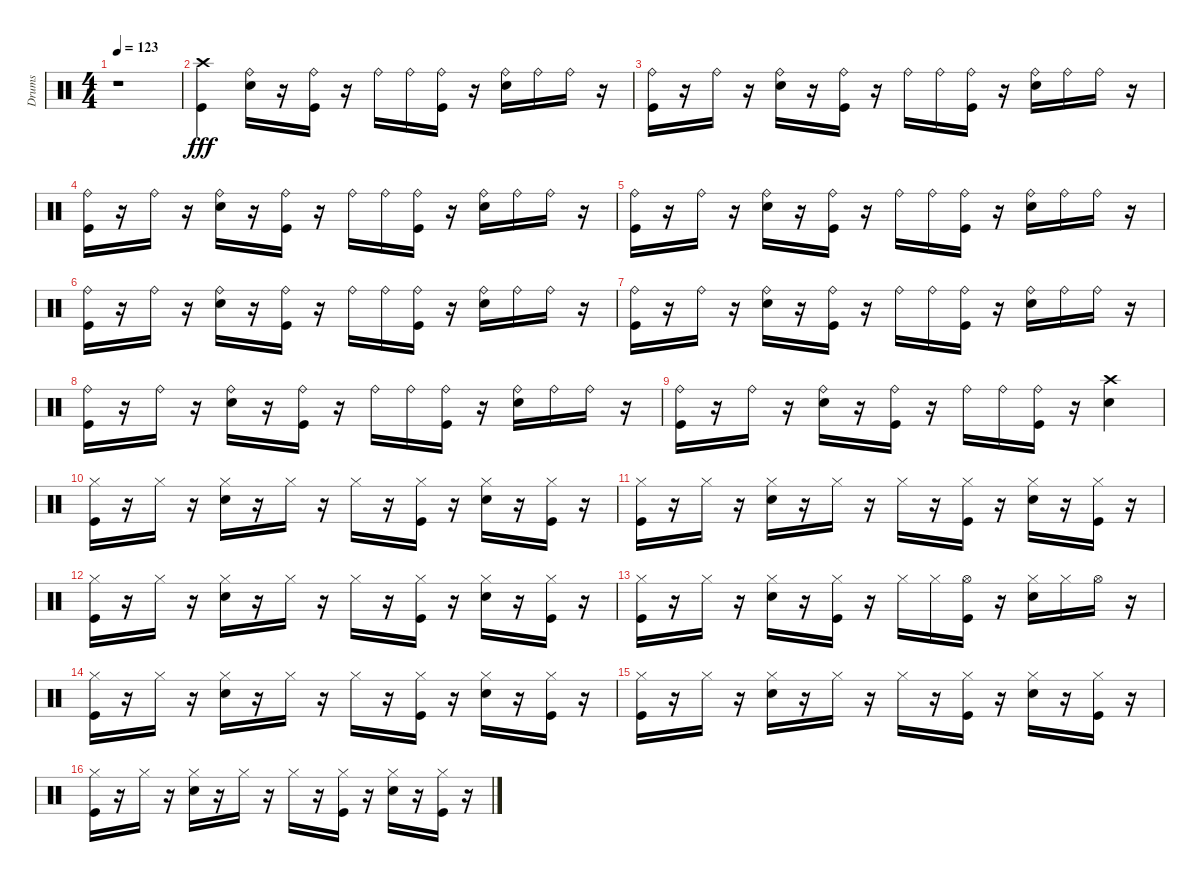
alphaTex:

\track ("Drums" "Drums") {instrument percussion}
\staff {score}
\articulation defaults
\ts (4 4)
\tempo 123
\clef neutral
\ks c
r.1{dy fff} |
("Crash high (hit)" "Kick (hit)").4 ("Snare (hit) 2" "Ride (bell)").16 r.16 ("Kick (hit)" "Ride (bell)").16 r.16 "Ride (bell)".16 "Ride (bell)".16 ("Kick (hit)" "Ride (bell)").16 r.16 ("Snare (hit) 2" "Ride (bell)").16 "Ride (bell)".16 "Ride (bell)".16 r.16 |
("Kick (hit)" "Ride (bell)").16 r.16 "Ride (bell)".16 r.16 ("Snare (hit) 2" "Ride (bell)").16 r.16 ("Kick (hit)" "Ride (bell)").16 r.16 "Ride (bell)".16 "Ride (bell)".16 ("Kick (hit)" "Ride (bell)").16 r.16 ("Snare (hit) 2" "Ride (bell)").16 "Ride (bell)".16 "Ride (bell)".16 r.16 |
("Kick (hit)" "Ride (bell)").16 r.16 "Ride (bell)".16 r.16 ("Snare (hit) 2" "Ride (bell)").16 r.16 ("Kick (hit)" "Ride (bell)").16 r.16 "Ride (bell)".16 "Ride (bell)".16 ("Kick (hit)" "Ride (bell)").16 r.16 ("Snare (hit) 2" "Ride (bell)").16 "Ride (bell)".16 "Ride (bell)".16 r.16 |
("Kick (hit)" "Ride (bell)").16 r.16 "Ride (bell)".16 r.16 ("Snare (hit) 2" "Ride (bell)").16 r.16 ("Kick (hit)" "Ride (bell)").16 r.16 "Ride (bell)".16 "Ride (bell)".16 ("Kick (hit)" "Ride (bell)").16 r.16 ("Snare (hit) 2" "Ride (bell)").16 "Ride (bell)".16 "Ride (bell)".16 r.16 |
("Kick (hit)" "Ride (bell)").16 r.16 "Ride (bell)".16 r.16 ("Snare (hit) 2" "Ride (bell)").16 r.16 ("Kick (hit)" "Ride (bell)").16 r.16 "Ride (bell)".16 "Ride (bell)".16 ("Kick (hit)" "Ride (bell)").16 r.16 ("Snare (hit) 2" "Ride (bell)").16 "Ride (bell)".16 "Ride (bell)".16 r.16 |
("Kick (hit)" "Ride (bell)").16 r.16 "Ride (bell)".16 r.16 ("Snare (hit) 2" "Ride (bell)").16 r.16 ("Kick (hit)" "Ride (bell)").16 r.16 "Ride (bell)".16 "Ride (bell)".16 ("Kick (hit)" "Ride (bell)").16 r.16 ("Snare (hit) 2" "Ride (bell)").16 "Ride (bell)".16 "Ride (bell)".16 r.16 |
("Kick (hit)" "Ride (bell)").16 r.16 "Ride (bell)".16 r.16 ("Snare (hit) 2" "Ride (bell)").16 r.16 ("Kick (hit)" "Ride (bell)").16 r.16 "Ride (bell)".16 "Ride (bell)".16 ("Kick (hit)" "Ride (bell)").16 r.16 ("Snare (hit) 2" "Ride (bell)").16 "Ride (bell)".16 "Ride (bell)".16 r.16 |
("Kick (hit)" "Ride (bell)").16 r.16 "Ride (bell)".16 r.16 ("Snare (hit) 2" "Ride (bell)").16 r.16 ("Kick (hit)" "Ride (bell)").16 r.16 "Ride (bell)".16 "Ride (bell)".16 ("Kick (hit)" "Ride (bell)").16 r.16 ("Snare (hit) 2" "Crash high (hit)").4 |
("Kick (hit)" "Hi-Hat (closed)").16 r.16 "Hi-Hat (closed)".16 r.16 ("Snare (hit) 2" "Hi-Hat (closed)").16 r.16 "Hi-Hat (closed)".16 r.16 "Hi-Hat (closed)".16 r.16 ("Kick (hit)" "Hi-Hat (closed)").16 r.16 ("Snare (hit) 2" "Hi-Hat (closed)").16 r.16 ("Kick (hit)" "Hi-Hat (closed)").16 r.16 |
("Kick (hit)" "Hi-Hat (closed)").16 r.16 "Hi-Hat (closed)".16 r.16 ("Snare (hit) 2" "Hi-Hat (closed)").16 r.16 "Hi-Hat (closed)".16 r.16 "Hi-Hat (closed)".16 r.16 ("Kick (hit)" "Hi-Hat (closed)").16 r.16 ("Snare (hit) 2" "Hi-Hat (closed)").16 r.16 ("Kick (hit)" "Hi-Hat (closed)").16 r.16 |
("Kick (hit)" "Hi-Hat (closed)").16 r.16 "Hi-Hat (closed)".16 r.16 ("Snare (hit) 2" "Hi-Hat (closed)").16 r.16 "Hi-Hat (closed)".16 r.16 "Hi-Hat (closed)".16 r.16 ("Kick (hit)" "Hi-Hat (closed)").16 r.16 ("Snare (hit) 2" "Hi-Hat (closed)").16 r.16 ("Kick (hit)" "Hi-Hat (closed)").16 r.16 |
("Kick (hit)" "Hi-Hat (closed)").16 r.16 "Hi-Hat (closed)".16 r.16 ("Snare (hit) 2" "Hi-Hat (closed)").16 r.16 ("Kick (hit)" "Hi-Hat (closed)").16 r.16 "Hi-Hat (closed)".16 "Hi-Hat (closed)".16 ("Kick (hit)" "Hi-Hat (open)").16 r.16 ("Snare (hit) 2" "Hi-Hat (closed)").16 "Hi-Hat (closed)".16 "Hi-Hat (open)".16 r.16 |
("Kick (hit)" "Hi-Hat (closed)").16 r.16 "Hi-Hat (closed)".16 r.16 ("Snare (hit) 2" "Hi-Hat (closed)").16 r.16 "Hi-Hat (closed)".16 r.16 "Hi-Hat (closed)".16 r.16 ("Kick (hit)" "Hi-Hat (closed)").16 r.16 ("Snare (hit) 2" "Hi-Hat (closed)").16 r.16 ("Kick (hit)" "Hi-Hat (closed)").16 r.16 |
("Kick (hit)" "Hi-Hat (closed)").16 r.16 "Hi-Hat (closed)".16 r.16 ("Snare (hit) 2" "Hi-Hat (closed)").16 r.16 "Hi-Hat (closed)".16 r.16 "Hi-Hat (closed)".16 r.16 ("Kick (hit)" "Hi-Hat (closed)").16 r.16 ("Snare (hit) 2" "Hi-Hat (closed)").16 r.16 ("Kick (hit)" "Hi-Hat (closed)").16 r.16 |
("Kick (hit)" "Hi-Hat (closed)").16 r.16 "Hi-Hat (closed)".16 r.16 ("Snare (hit) 2" "Hi-Hat (closed)").16 r.16 "Hi-Hat (closed)".16 r.16 "Hi-Hat (closed)".16 r.16 ("Kick (hit)" "Hi-Hat (closed)").16 r.16 ("Snare (hit) 2" "Hi-Hat (closed)").16 r.16 ("Kick (hit)" "Hi-Hat (closed)").16 r.16
